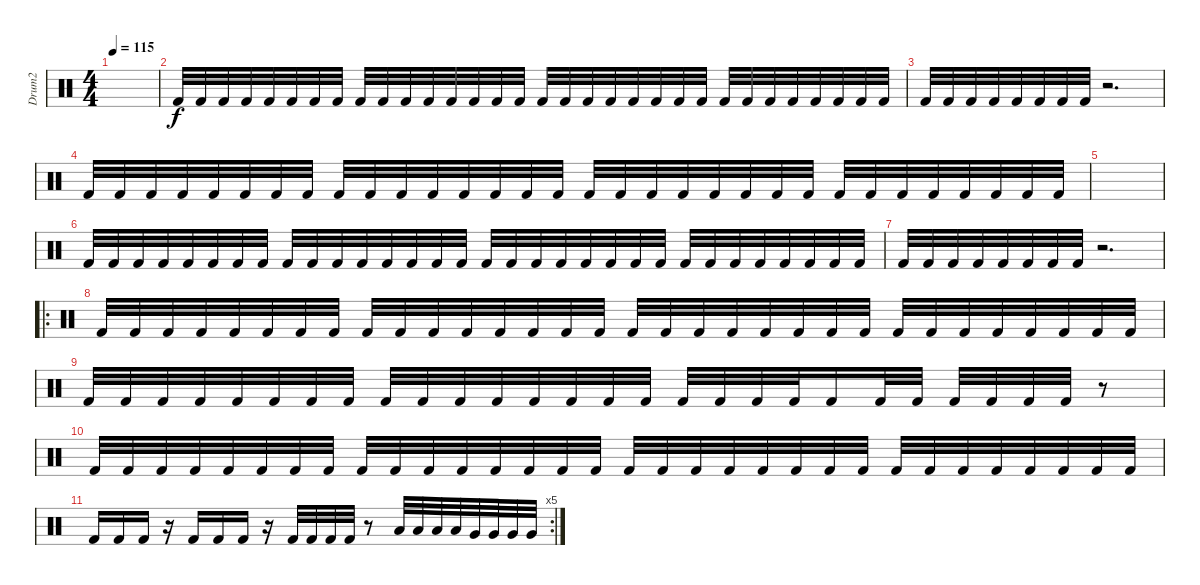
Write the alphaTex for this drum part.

\track ("Drum2" "Drum2") {instrument percussion}
\staff {score}
\articulation defaults
\ts (4 4)
\tempo 115
\clef neutral
\ks c
|
"Kick (hit) 2".32 "Kick (hit) 2".32 "Kick (hit) 2".32 "Kick (hit) 2".32 "Kick (hit) 2".32 "Kick (hit) 2".32 "Kick (hit) 2".32 "Kick (hit) 2".32 "Kick (hit) 2".32 "Kick (hit) 2".32 "Kick (hit) 2".32 "Kick (hit) 2".32 "Kick (hit) 2".32 "Kick (hit) 2".32 "Kick (hit) 2".32 "Kick (hit) 2".32 "Kick (hit) 2".32 "Kick (hit) 2".32 "Kick (hit) 2".32 "Kick (hit) 2".32 "Kick (hit) 2".32 "Kick (hit) 2".32 "Kick (hit) 2".32 "Kick (hit) 2".32 "Kick (hit) 2".32 "Kick (hit) 2".32 "Kick (hit) 2".32 "Kick (hit) 2".32 "Kick (hit) 2".32 "Kick (hit) 2".32 "Kick (hit) 2".32 "Kick (hit) 2".32 |
"Kick (hit) 2".32 "Kick (hit) 2".32 "Kick (hit) 2".32 "Kick (hit) 2".32 "Kick (hit) 2".32 "Kick (hit) 2".32 "Kick (hit) 2".32 "Kick (hit) 2".32 r.2{d} |
"Kick (hit) 2".32 "Kick (hit) 2".32 "Kick (hit) 2".32 "Kick (hit) 2".32 "Kick (hit) 2".32 "Kick (hit) 2".32 "Kick (hit) 2".32 "Kick (hit) 2".32 "Kick (hit) 2".32 "Kick (hit) 2".32 "Kick (hit) 2".32 "Kick (hit) 2".32 "Kick (hit) 2".32 "Kick (hit) 2".32 "Kick (hit) 2".32 "Kick (hit) 2".32 "Kick (hit) 2".32 "Kick (hit) 2".32 "Kick (hit) 2".32 "Kick (hit) 2".32 "Kick (hit) 2".32 "Kick (hit) 2".32 "Kick (hit) 2".32 "Kick (hit) 2".32 "Kick (hit) 2".32 "Kick (hit) 2".32 "Kick (hit) 2".32 "Kick (hit) 2".32 "Kick (hit) 2".32 "Kick (hit) 2".32 "Kick (hit) 2".32 "Kick (hit) 2".32 |
|
"Kick (hit) 2".32 "Kick (hit) 2".32 "Kick (hit) 2".32 "Kick (hit) 2".32 "Kick (hit) 2".32 "Kick (hit) 2".32 "Kick (hit) 2".32 "Kick (hit) 2".32 "Kick (hit) 2".32 "Kick (hit) 2".32 "Kick (hit) 2".32 "Kick (hit) 2".32 "Kick (hit) 2".32 "Kick (hit) 2".32 "Kick (hit) 2".32 "Kick (hit) 2".32 "Kick (hit) 2".32 "Kick (hit) 2".32 "Kick (hit) 2".32 "Kick (hit) 2".32 "Kick (hit) 2".32 "Kick (hit) 2".32 "Kick (hit) 2".32 "Kick (hit) 2".32 "Kick (hit) 2".32 "Kick (hit) 2".32 "Kick (hit) 2".32 "Kick (hit) 2".32 "Kick (hit) 2".32 "Kick (hit) 2".32 "Kick (hit) 2".32 "Kick (hit) 2".32 |
"Kick (hit) 2".32 "Kick (hit) 2".32 "Kick (hit) 2".32 "Kick (hit) 2".32 "Kick (hit) 2".32 "Kick (hit) 2".32 "Kick (hit) 2".32 "Kick (hit) 2".32 r.2{d} |
\ro "Kick (hit) 2".32 "Kick (hit) 2".32 "Kick (hit) 2".32 "Kick (hit) 2".32 "Kick (hit) 2".32 "Kick (hit) 2".32 "Kick (hit) 2".32 "Kick (hit) 2".32 "Kick (hit) 2".32 "Kick (hit) 2".32 "Kick (hit) 2".32 "Kick (hit) 2".32 "Kick (hit) 2".32 "Kick (hit) 2".32 "Kick (hit) 2".32 "Kick (hit) 2".32 "Kick (hit) 2".32 "Kick (hit) 2".32 "Kick (hit) 2".32 "Kick (hit) 2".32 "Kick (hit) 2".32 "Kick (hit) 2".32 "Kick (hit) 2".32 "Kick (hit) 2".32 "Kick (hit) 2".32 "Kick (hit) 2".32 "Kick (hit) 2".32 "Kick (hit) 2".32 "Kick (hit) 2".32 "Kick (hit) 2".32 "Kick (hit) 2".32 "Kick (hit) 2".32
|
"Kick (hit) 2".32 "Kick (hit) 2".32 "Kick (hit) 2".32 "Kick (hit) 2".32 "Kick (hit) 2".32 "Kick (hit) 2".32 "Kick (hit) 2".32 "Kick (hit) 2".32 "Kick (hit) 2".32 "Kick (hit) 2".32 "Kick (hit) 2".32 "Kick (hit) 2".32 "Kick (hit) 2".32 "Kick (hit) 2".32 "Kick (hit) 2".32 "Kick (hit) 2".32 "Kick (hit) 2".32 "Kick (hit) 2".32 "Kick (hit) 2".32 "Kick (hit) 2".32 "Kick (hit) 2".16 "Kick (hit) 2".32 "Kick (hit) 2".32 "Kick (hit) 2".32 "Kick (hit) 2".32 "Kick (hit) 2".32 "Kick (hit) 2".32 r.8 |
"Kick (hit) 2".32 "Kick (hit) 2".32 "Kick (hit) 2".32 "Kick (hit) 2".32 "Kick (hit) 2".32 "Kick (hit) 2".32 "Kick (hit) 2".32 "Kick (hit) 2".32 "Kick (hit) 2".32 "Kick (hit) 2".32 "Kick (hit) 2".32 "Kick (hit) 2".32 "Kick (hit) 2".32 "Kick (hit) 2".32 "Kick (hit) 2".32 "Kick (hit) 2".32 "Kick (hit) 2".32 "Kick (hit) 2".32 "Kick (hit) 2".32 "Kick (hit) 2".32 "Kick (hit) 2".32 "Kick (hit) 2".32 "Kick (hit) 2".32 "Kick (hit) 2".32 "Kick (hit) 2".32 "Kick (hit) 2".32 "Kick (hit) 2".32 "Kick (hit) 2".32 "Kick (hit) 2".32 "Kick (hit) 2".32 "Kick (hit) 2".32 "Kick (hit) 2".32 |
\rc 5 "Kick (hit) 2".16 "Kick (hit) 2".16 "Kick (hit) 2".16
r.16 "Kick (hit) 2".16 "Kick (hit) 2".16 "Kick (hit) 2".16 r.16 "Kick (hit) 2".32 "Kick (hit) 2".32 "Kick (hit) 2".32 "Kick (hit) 2".32 r.8 "Low Tom (hit)".32 "Low Tom (hit)".32 "Low Tom (hit)".32 "Low Tom (hit)".32 "Very Low Tom (hit)".32 "Very Low Tom (hit)".32 "Very Low Tom (hit)".32 "Very Low Tom (hit)".32
